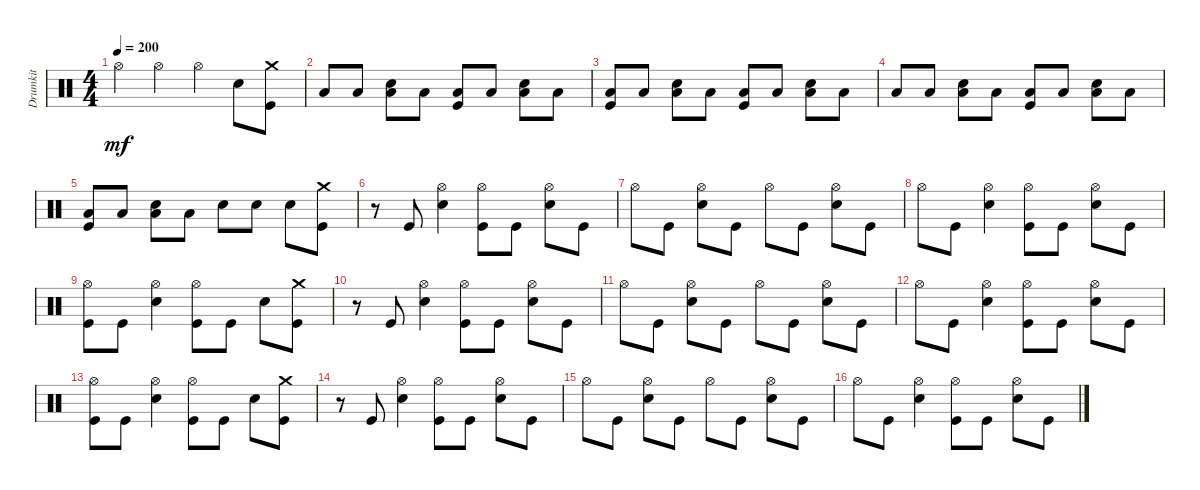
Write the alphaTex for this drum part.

\track ("Drumkit" "Drumkit") {instrument percussion}
\staff {score}
\articulation defaults
\ts (4 4)
\tempo 200
\clef neutral
\ks c "Hi-Hat (open)".4{dy mf} "Hi-Hat (open)".4 "Hi-Hat (open)".4 "Snare (hit) 2".8
("Kick (hit)" "Crash medium (hit)").8 |
"Low Floor Tom (hit)".8 "Low Floor Tom (hit)".8 ("Low Floor Tom (hit)" "Snare (hit) 2").8 "Low Floor Tom (hit)".8 ("Low Floor Tom (hit)" "Kick (hit)").8 "Low Floor Tom (hit)".8 ("Low Floor Tom (hit)" "Snare (hit) 2").8 "Low Floor Tom (hit)".8 |
("Low Floor Tom (hit)" "Kick (hit)").8 "Low Floor Tom (hit)".8 ("Low Floor Tom (hit)" "Snare (hit) 2").8 "Low Floor Tom (hit)".8 ("Low Floor Tom (hit)" "Kick (hit)").8 "Low Floor Tom (hit)".8 ("Low Floor Tom (hit)" "Snare (hit) 2").8 "Low Floor Tom (hit)".8 |
"Low Floor Tom (hit)".8 "Low Floor Tom (hit)".8 ("Low Floor Tom (hit)" "Snare (hit) 2").8 "Low Floor Tom (hit)".8 ("Low Floor Tom (hit)" "Kick (hit)").8 "Low Floor Tom (hit)".8 ("Low Floor Tom (hit)" "Snare (hit) 2").8 "Low Floor Tom (hit)".8 |
("Low Floor Tom (hit)" "Kick (hit)").8 "Low Floor Tom (hit)".8 ("Low Floor Tom (hit)" "Snare (hit) 2").8 "Low Floor Tom (hit)".8 "Snare (hit) 2".8 "Snare (hit) 2".8 "Snare (hit) 2".8 ("Kick (hit)" "Crash medium (hit)").8 |
r.8 "Kick (hit)".8 ("Hi-Hat (open)" "Snare (hit) 2").4 ("Hi-Hat (open)" "Kick (hit)").8 "Kick (hit)".8 ("Hi-Hat (open)" "Snare (hit) 2").8 "Kick (hit)".8 |
"Hi-Hat (open)".8 "Kick (hit)".8 ("Hi-Hat (open)" "Snare (hit) 2").8 "Kick (hit)".8 "Hi-Hat (open)".8 "Kick (hit)".8 ("Hi-Hat (open)" "Snare (hit) 2").8 "Kick (hit)".8 |
"Hi-Hat (open)".8 "Kick (hit)".8 ("Hi-Hat (open)" "Snare (hit) 2").4 ("Hi-Hat (open)" "Kick (hit)").8 "Kick (hit)".8 ("Hi-Hat (open)" "Snare (hit) 2").8 "Kick (hit)".8 |
("Kick (hit)" "Hi-Hat (open)").8 "Kick (hit)".8 ("Hi-Hat (open)" "Snare (hit) 2").4 ("Hi-Hat (open)" "Kick (hit)").8 "Kick (hit)".8 "Snare (hit) 2".8 ("Kick (hit)" "Crash medium (hit)").8 |
r.8 "Kick (hit)".8 ("Hi-Hat (open)" "Snare (hit) 2").4 ("Hi-Hat (open)" "Kick (hit)").8 "Kick (hit)".8 ("Hi-Hat (open)" "Snare (hit) 2").8 "Kick (hit)".8 |
"Hi-Hat (open)".8 "Kick (hit)".8 ("Hi-Hat (open)" "Snare (hit) 2").8 "Kick (hit)".8 "Hi-Hat (open)".8 "Kick (hit)".8 ("Hi-Hat (open)" "Snare (hit) 2").8 "Kick (hit)".8 |
"Hi-Hat (open)".8 "Kick (hit)".8 ("Hi-Hat (open)" "Snare (hit) 2").4 ("Hi-Hat (open)" "Kick (hit)").8 "Kick (hit)".8 ("Hi-Hat (open)" "Snare (hit) 2").8 "Kick (hit)".8 |
("Kick (hit)" "Hi-Hat (open)").8 "Kick (hit)".8 ("Hi-Hat (open)" "Snare (hit) 2").4 ("Hi-Hat (open)" "Kick (hit)").8 "Kick (hit)".8 "Snare (hit) 2".8 ("Kick (hit)" "Crash medium (hit)").8 |
r.8 "Kick (hit)".8 ("Hi-Hat (open)" "Snare (hit) 2").4 ("Hi-Hat (open)" "Kick (hit)").8 "Kick (hit)".8 ("Hi-Hat (open)" "Snare (hit) 2").8 "Kick (hit)".8 |
"Hi-Hat (open)".8 "Kick (hit)".8 ("Hi-Hat (open)" "Snare (hit) 2").8 "Kick (hit)".8 "Hi-Hat (open)".8 "Kick (hit)".8 ("Hi-Hat (open)" "Snare (hit) 2").8 "Kick (hit)".8 |
"Hi-Hat (open)".8 "Kick (hit)".8 ("Hi-Hat (open)" "Snare (hit) 2").4 ("Hi-Hat (open)" "Kick (hit)").8 "Kick (hit)".8 ("Hi-Hat (open)" "Snare (hit) 2").8 "Kick (hit)".8
